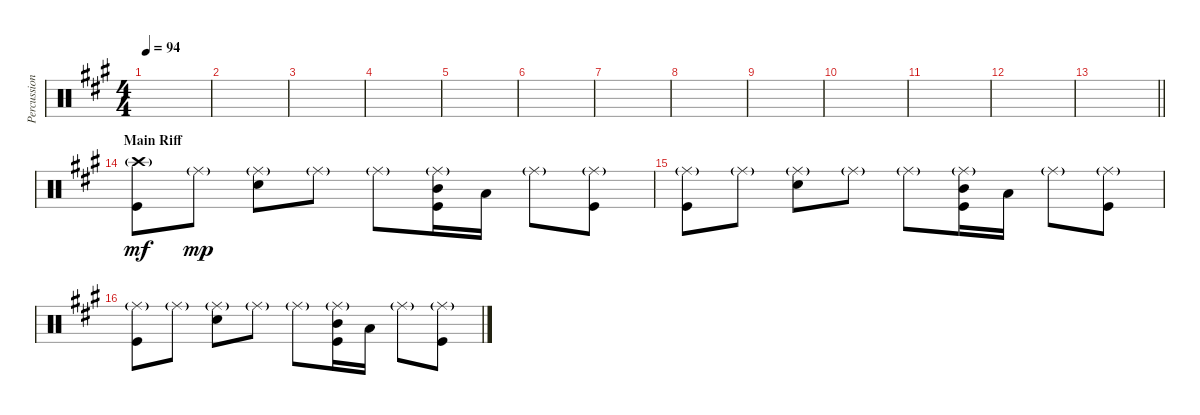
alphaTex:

\track ("Percussion" "Percussion") {instrument percussion}
\staff {score}
\articulation defaults
\ts (4 4)
\tempo 94
\clef neutral
\ks a
|
|
|
|
|
|
|
|
|
|
|
|
\barLineRight lightlight
|
\section ("" "Main Riff")
("Crash high (hit)"{g} "Kick (hit)").8{dy mf} "Ride (middle)"{g}.8{dy mp} ("Ride (middle)"{g} "Electric Snare (hit)").8 "Ride (middle)"{g}.8 "Ride (middle)"{g}.8 ("Ride (middle)"{g} "Mid Tom (hit)" "Kick (hit)").16 "Low Tom (hit)".16 "Ride (middle)"{g}.8 ("Ride (middle)"{g} "Kick (hit)").8 |
("Ride (middle)"{g} "Kick (hit)").8 "Ride (middle)"{g}.8 ("Ride (middle)"{g} "Electric Snare (hit)").8 "Ride (middle)"{g}.8 "Ride (middle)"{g}.8 ("Ride (middle)"{g} "Mid Tom (hit)" "Kick (hit)").16 "Low Tom (hit)".16 "Ride (middle)"{g}.8 ("Ride (middle)"{g} "Kick (hit)").8 |
("Ride (middle)"{g} "Kick (hit)").8 "Ride (middle)"{g}.8 ("Ride (middle)"{g} "Electric Snare (hit)").8 "Ride (middle)"{g}.8 "Ride (middle)"{g}.8 ("Ride (middle)"{g} "Mid Tom (hit)" "Kick (hit)").16 "Low Tom (hit)".16 "Ride (middle)"{g}.8 ("Ride (middle)"{g} "Kick (hit)").8
